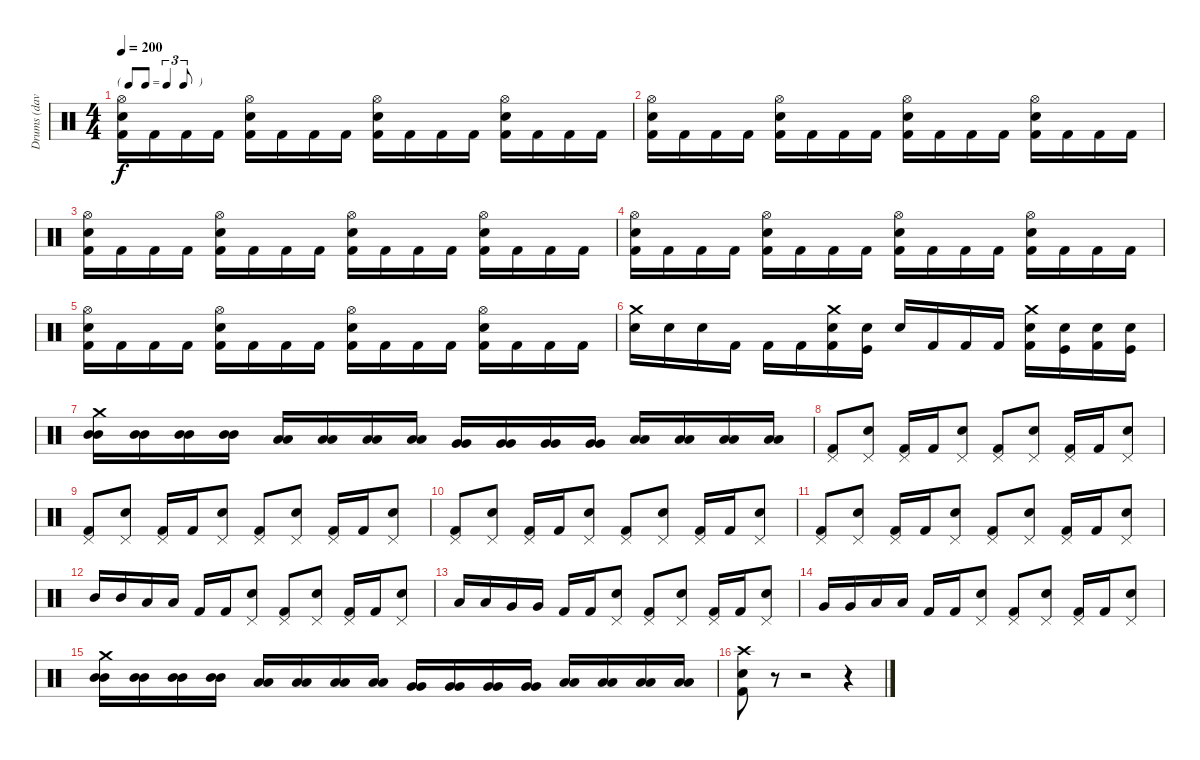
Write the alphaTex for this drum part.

\track ("Drums (dave)" "Drums (dav") {instrument percussion}
\staff {score}
\articulation defaults
\ts (4 4)
\tf triplet8th
\tempo 200
\clef neutral
\ks c
("Hi-Hat (open)" "Snare (hit) 2" "Kick (hit) 2").16{dy f} "Kick (hit) 2".16 "Kick (hit) 2".16 "Kick (hit) 2".16 ("Hi-Hat (open)" "Snare (hit) 2" "Kick (hit) 2").16 "Kick (hit) 2".16 "Kick (hit) 2".16 "Kick (hit) 2".16 ("Hi-Hat (open)" "Snare (hit) 2" "Kick (hit) 2").16 "Kick (hit) 2".16 "Kick (hit) 2".16 "Kick (hit) 2".16 ("Hi-Hat (open)" "Snare (hit) 2" "Kick (hit) 2").16 "Kick (hit) 2".16 "Kick (hit) 2".16 "Kick (hit) 2".16 |
("Hi-Hat (open)" "Snare (hit) 2" "Kick (hit) 2").16 "Kick (hit) 2".16 "Kick (hit) 2".16 "Kick (hit) 2".16 ("Hi-Hat (open)" "Snare (hit) 2" "Kick (hit) 2").16 "Kick (hit) 2".16 "Kick (hit) 2".16 "Kick (hit) 2".16 ("Hi-Hat (open)" "Snare (hit) 2" "Kick (hit) 2").16 "Kick (hit) 2".16 "Kick (hit) 2".16 "Kick (hit) 2".16 ("Hi-Hat (open)" "Snare (hit) 2" "Kick (hit) 2").16 "Kick (hit) 2".16 "Kick (hit) 2".16 "Kick (hit) 2".16 |
("Hi-Hat (open)" "Snare (hit) 2" "Kick (hit) 2").16 "Kick (hit) 2".16 "Kick (hit) 2".16 "Kick (hit) 2".16 ("Hi-Hat (open)" "Snare (hit) 2" "Kick (hit) 2").16 "Kick (hit) 2".16 "Kick (hit) 2".16 "Kick (hit) 2".16 ("Hi-Hat (open)" "Snare (hit) 2" "Kick (hit) 2").16 "Kick (hit) 2".16 "Kick (hit) 2".16 "Kick (hit) 2".16 ("Hi-Hat (open)" "Snare (hit) 2" "Kick (hit) 2").16 "Kick (hit) 2".16 "Kick (hit) 2".16 "Kick (hit) 2".16 |
("Hi-Hat (open)" "Snare (hit) 2" "Kick (hit) 2").16 "Kick (hit) 2".16 "Kick (hit) 2".16 "Kick (hit) 2".16 ("Hi-Hat (open)" "Snare (hit) 2" "Kick (hit) 2").16 "Kick (hit) 2".16 "Kick (hit) 2".16 "Kick (hit) 2".16 ("Hi-Hat (open)" "Snare (hit) 2" "Kick (hit) 2").16 "Kick (hit) 2".16 "Kick (hit) 2".16 "Kick (hit) 2".16 ("Hi-Hat (open)" "Snare (hit) 2" "Kick (hit) 2").16 "Kick (hit) 2".16 "Kick (hit) 2".16 "Kick (hit) 2".16 |
("Hi-Hat (open)" "Snare (hit) 2" "Kick (hit) 2").16 "Kick (hit) 2".16 "Kick (hit) 2".16 "Kick (hit) 2".16 ("Hi-Hat (open)" "Snare (hit) 2" "Kick (hit) 2").16 "Kick (hit) 2".16 "Kick (hit) 2".16 "Kick (hit) 2".16 ("Hi-Hat (open)" "Snare (hit) 2" "Kick (hit) 2").16 "Kick (hit) 2".16 "Kick (hit) 2".16 "Kick (hit) 2".16 ("Hi-Hat (open)" "Snare (hit) 2" "Kick (hit) 2").16 "Kick (hit) 2".16 "Kick (hit) 2".16 "Kick (hit) 2".16 |
("Crash medium (hit)" "Snare (hit) 2").16 "Snare (hit) 2".16 "Snare (hit) 2".16 "Kick (hit) 2".16 "Kick (hit) 2".16 "Kick (hit) 2".16 ("Crash medium (hit)" "Snare (hit) 2" "Kick (hit) 2"{x}).16 ("Snare (hit) 2" "Kick (hit)"{x}).16 "Snare (hit) 2".16 "Kick (hit) 2".16 "Kick (hit) 2".16 "Kick (hit) 2".16 ("Crash medium (hit)" "Snare (hit) 2" "Kick (hit) 2"{x}).16 ("Snare (hit) 2" "Kick (hit)"{x}).16 ("Snare (hit) 2" "Kick (hit) 2"{x}).16 ("Snare (hit) 2" "Kick (hit)"{x}).16 |
("Crash medium (hit)" "Mid Tom (hit)" "Mid Tom (hit)").16 ("Mid Tom (hit)" "Mid Tom (hit)").16 ("Mid Tom (hit)" "Mid Tom (hit)").16 ("Mid Tom (hit)" "Mid Tom (hit)").16 ("Low Tom (hit)" "Low Tom (hit)").16 ("Low Tom (hit)" "Low Tom (hit)").16 ("Low Tom (hit)" "Low Tom (hit)").16 ("Low Tom (hit)" "Low Tom (hit)").16 ("Very Low Tom (hit)" "Very Low Tom (hit)").16 ("Very Low Tom (hit)" "Very Low Tom (hit)").16 ("Very Low Tom (hit)" "Very Low Tom (hit)").16 ("Very Low Tom (hit)" "Very Low Tom (hit)").16 ("Low Floor Tom (hit)" "Low Floor Tom (hit)").16 ("Low Floor Tom (hit)" "Low Floor Tom (hit)").16 ("Low Floor Tom (hit)" "Low Floor Tom (hit)").16 ("Low Floor Tom (hit)" "Low Floor Tom (hit)").16 |
("Pedal Hi-Hat (hit)" "Kick (hit) 2").8 ("Pedal Hi-Hat (hit)" "Snare (hit) 2").8 ("Pedal Hi-Hat (hit)" "Kick (hit) 2").16 "Kick (hit) 2".16 ("Pedal Hi-Hat (hit)" "Snare (hit) 2").8 ("Pedal Hi-Hat (hit)" "Kick (hit) 2").8 ("Pedal Hi-Hat (hit)" "Snare (hit) 2").8 ("Pedal Hi-Hat (hit)" "Kick (hit) 2").16 "Kick (hit) 2".16 ("Pedal Hi-Hat (hit)" "Snare (hit) 2").8 |
("Pedal Hi-Hat (hit)" "Kick (hit) 2").8 ("Pedal Hi-Hat (hit)" "Snare (hit) 2").8 ("Pedal Hi-Hat (hit)" "Kick (hit) 2").16 "Kick (hit) 2".16 ("Pedal Hi-Hat (hit)" "Snare (hit) 2").8 ("Pedal Hi-Hat (hit)" "Kick (hit) 2").8 ("Pedal Hi-Hat (hit)" "Snare (hit) 2").8 ("Pedal Hi-Hat (hit)" "Kick (hit) 2").16 "Kick (hit) 2".16 ("Pedal Hi-Hat (hit)" "Snare (hit) 2").8 |
("Pedal Hi-Hat (hit)" "Kick (hit) 2").8 ("Pedal Hi-Hat (hit)" "Snare (hit) 2").8 ("Pedal Hi-Hat (hit)" "Kick (hit) 2").16 "Kick (hit) 2".16 ("Pedal Hi-Hat (hit)" "Snare (hit) 2").8 ("Pedal Hi-Hat (hit)" "Kick (hit) 2").8 ("Pedal Hi-Hat (hit)" "Snare (hit) 2").8 ("Pedal Hi-Hat (hit)" "Kick (hit) 2").16 "Kick (hit) 2".16 ("Pedal Hi-Hat (hit)" "Snare (hit) 2").8 |
("Pedal Hi-Hat (hit)" "Kick (hit) 2").8 ("Pedal Hi-Hat (hit)" "Snare (hit) 2").8 ("Pedal Hi-Hat (hit)" "Kick (hit) 2").16 "Kick (hit) 2".16 ("Pedal Hi-Hat (hit)" "Snare (hit) 2").8 ("Pedal Hi-Hat (hit)" "Kick (hit) 2").8 ("Pedal Hi-Hat (hit)" "Snare (hit) 2").8 ("Pedal Hi-Hat (hit)" "Kick (hit) 2").16 "Kick (hit) 2".16 ("Pedal Hi-Hat (hit)" "Snare (hit) 2").8 |
"Mid Tom (hit)".16 "Mid Tom (hit)".16 "Low Tom (hit)".16 "Low Tom (hit)".16 "Kick (hit) 2".16 "Kick (hit) 2".16 ("Pedal Hi-Hat (hit)" "Snare (hit) 2").8 ("Pedal Hi-Hat (hit)" "Kick (hit) 2").8 ("Pedal Hi-Hat (hit)" "Snare (hit) 2").8 ("Pedal Hi-Hat (hit)" "Kick (hit) 2").16 "Kick (hit) 2".16 ("Pedal Hi-Hat (hit)" "Snare (hit) 2").8 |
"Low Tom (hit)".16 "Low Tom (hit)".16 "Very Low Tom (hit)".16 "Very Low Tom (hit)".16 "Kick (hit) 2".16 "Kick (hit) 2".16 ("Pedal Hi-Hat (hit)" "Snare (hit) 2").8 ("Pedal Hi-Hat (hit)" "Kick (hit) 2").8 ("Pedal Hi-Hat (hit)" "Snare (hit) 2").8 ("Pedal Hi-Hat (hit)" "Kick (hit) 2").16 "Kick (hit) 2".16 ("Pedal Hi-Hat (hit)" "Snare (hit) 2").8 |
"Very Low Tom (hit)".16 "Very Low Tom (hit)".16 "Low Floor Tom (hit)".16 "Low Floor Tom (hit)".16 "Kick (hit) 2".16 "Kick (hit) 2".16 ("Pedal Hi-Hat (hit)" "Snare (hit) 2").8 ("Pedal Hi-Hat (hit)" "Kick (hit) 2").8 ("Pedal Hi-Hat (hit)" "Snare (hit) 2").8 ("Pedal Hi-Hat (hit)" "Kick (hit) 2").16 "Kick (hit) 2".16 ("Pedal Hi-Hat (hit)" "Snare (hit) 2").8 |
("Crash medium (hit)" "Mid Tom (hit)" "Mid Tom (hit)").16 ("Mid Tom (hit)" "Mid Tom (hit)").16 ("Mid Tom (hit)" "Mid Tom (hit)").16 ("Mid Tom (hit)" "Mid Tom (hit)").16 ("Low Tom (hit)" "Low Tom (hit)").16 ("Low Tom (hit)" "Low Tom (hit)").16 ("Low Tom (hit)" "Low Tom (hit)").16 ("Low Tom (hit)" "Low Tom (hit)").16 ("Very Low Tom (hit)" "Very Low Tom (hit)").16 ("Very Low Tom (hit)" "Very Low Tom (hit)").16 ("Very Low Tom (hit)" "Very Low Tom (hit)").16 ("Very Low Tom (hit)" "Very Low Tom (hit)").16 ("Low Floor Tom (hit)" "Low Floor Tom (hit)").16 ("Low Floor Tom (hit)" "Low Floor Tom (hit)").16 ("Low Floor Tom (hit)" "Low Floor Tom (hit)").16 ("Low Floor Tom (hit)" "Low Floor Tom (hit)").16 |
("Crash high (hit)" "Snare (hit) 2" "Kick (hit) 2").8 r.8 r.2 r.4
